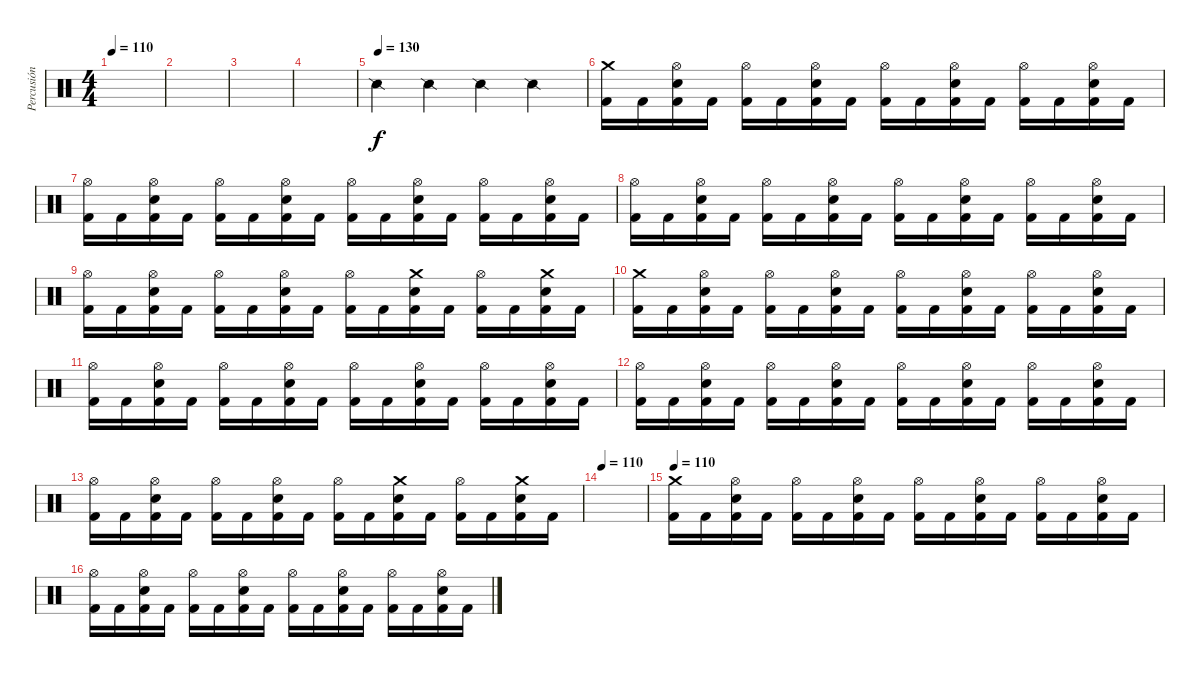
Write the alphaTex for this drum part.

\track ("Percusión" "Percusión") {instrument percussion}
\staff {score}
\articulation defaults
\ts (4 4)
\tempo 110
\tempo 70
\tempo 110
\clef neutral
\ks c
|
|
|
|
\tempo (130)
"Snare (side stick) 2".4 "Snare (side stick) 2".4 "Snare (side stick) 2".4 "Snare (side stick) 2".4 |
("Kick (hit) 2" "Crash medium (hit)").16 "Kick (hit) 2".16 ("Kick (hit) 2" "Snare (hit) 2" "Hi-Hat (open)").16 "Kick (hit) 2".16 ("Kick (hit) 2" "Hi-Hat (open)").16 "Kick (hit) 2".16 ("Kick (hit) 2" "Snare (hit) 2" "Hi-Hat (open)").16 "Kick (hit) 2".16 ("Kick (hit) 2" "Hi-Hat (open)").16 "Kick (hit) 2".16 ("Kick (hit) 2" "Snare (hit) 2" "Hi-Hat (open)").16 "Kick (hit) 2".16 ("Kick (hit) 2" "Hi-Hat (open)").16 "Kick (hit) 2".16 ("Kick (hit) 2" "Snare (hit) 2" "Hi-Hat (open)").16 "Kick (hit) 2".16 |
("Hi-Hat (open)" "Kick (hit) 2").16 "Kick (hit) 2".16 ("Kick (hit) 2" "Snare (hit) 2" "Hi-Hat (open)").16 "Kick (hit) 2".16 ("Kick (hit) 2" "Hi-Hat (open)").16 "Kick (hit) 2".16 ("Kick (hit) 2" "Snare (hit) 2" "Hi-Hat (open)").16 "Kick (hit) 2".16 ("Kick (hit) 2" "Hi-Hat (open)").16 "Kick (hit) 2".16 ("Kick (hit) 2" "Snare (hit) 2" "Hi-Hat (open)").16 "Kick (hit) 2".16 ("Kick (hit) 2" "Hi-Hat (open)").16 "Kick (hit) 2".16 ("Kick (hit) 2" "Snare (hit) 2" "Hi-Hat (open)").16 "Kick (hit) 2".16 |
("Hi-Hat (open)" "Kick (hit) 2").16 "Kick (hit) 2".16 ("Kick (hit) 2" "Snare (hit) 2" "Hi-Hat (open)").16 "Kick (hit) 2".16 ("Kick (hit) 2" "Hi-Hat (open)").16 "Kick (hit) 2".16 ("Kick (hit) 2" "Snare (hit) 2" "Hi-Hat (open)").16 "Kick (hit) 2".16 ("Kick (hit) 2" "Hi-Hat (open)").16 "Kick (hit) 2".16 ("Kick (hit) 2" "Snare (hit) 2" "Hi-Hat (open)").16 "Kick (hit) 2".16 ("Kick (hit) 2" "Hi-Hat (open)").16 "Kick (hit) 2".16 ("Kick (hit) 2" "Snare (hit) 2" "Hi-Hat (open)").16 "Kick (hit) 2".16 |
("Hi-Hat (open)" "Kick (hit) 2").16 "Kick (hit) 2".16 ("Kick (hit) 2" "Snare (hit) 2" "Hi-Hat (open)").16 "Kick (hit) 2".16 ("Kick (hit) 2" "Hi-Hat (open)").16 "Kick (hit) 2".16 ("Kick (hit) 2" "Snare (hit) 2" "Hi-Hat (open)").16 "Kick (hit) 2".16 ("Kick (hit) 2" "Hi-Hat (open)").16 "Kick (hit) 2".16 ("Crash medium (hit)" "Kick (hit) 2" "Snare (hit) 2").16 "Kick (hit) 2".16 ("Kick (hit) 2" "Hi-Hat (open)").16 "Kick (hit) 2".16 ("Crash medium (hit)" "Kick (hit) 2" "Snare (hit) 2").16 "Kick (hit) 2".16 |
("Kick (hit) 2" "Crash medium (hit)").16 "Kick (hit) 2".16 ("Kick (hit) 2" "Snare (hit) 2" "Hi-Hat (open)").16 "Kick (hit) 2".16 ("Kick (hit) 2" "Hi-Hat (open)").16 "Kick (hit) 2".16 ("Kick (hit) 2" "Snare (hit) 2" "Hi-Hat (open)").16 "Kick (hit) 2".16 ("Kick (hit) 2" "Hi-Hat (open)").16 "Kick (hit) 2".16 ("Kick (hit) 2" "Snare (hit) 2" "Hi-Hat (open)").16 "Kick (hit) 2".16 ("Kick (hit) 2" "Hi-Hat (open)").16 "Kick (hit) 2".16 ("Kick (hit) 2" "Snare (hit) 2" "Hi-Hat (open)").16 "Kick (hit) 2".16 |
("Hi-Hat (open)" "Kick (hit) 2").16 "Kick (hit) 2".16 ("Kick (hit) 2" "Snare (hit) 2" "Hi-Hat (open)").16 "Kick (hit) 2".16 ("Kick (hit) 2" "Hi-Hat (open)").16 "Kick (hit) 2".16 ("Kick (hit) 2" "Snare (hit) 2" "Hi-Hat (open)").16 "Kick (hit) 2".16 ("Kick (hit) 2" "Hi-Hat (open)").16 "Kick (hit) 2".16 ("Kick (hit) 2" "Snare (hit) 2" "Hi-Hat (open)").16 "Kick (hit) 2".16 ("Kick (hit) 2" "Hi-Hat (open)").16 "Kick (hit) 2".16 ("Kick (hit) 2" "Snare (hit) 2" "Hi-Hat (open)").16 "Kick (hit) 2".16 |
("Hi-Hat (open)" "Kick (hit) 2").16 "Kick (hit) 2".16 ("Kick (hit) 2" "Snare (hit) 2" "Hi-Hat (open)").16 "Kick (hit) 2".16 ("Kick (hit) 2" "Hi-Hat (open)").16 "Kick (hit) 2".16 ("Kick (hit) 2" "Snare (hit) 2" "Hi-Hat (open)").16 "Kick (hit) 2".16 ("Kick (hit) 2" "Hi-Hat (open)").16 "Kick (hit) 2".16 ("Kick (hit) 2" "Snare (hit) 2" "Hi-Hat (open)").16 "Kick (hit) 2".16 ("Kick (hit) 2" "Hi-Hat (open)").16 "Kick (hit) 2".16 ("Kick (hit) 2" "Snare (hit) 2" "Hi-Hat (open)").16 "Kick (hit) 2".16 |
("Hi-Hat (open)" "Kick (hit) 2").16 "Kick (hit) 2".16 ("Kick (hit) 2" "Snare (hit) 2" "Hi-Hat (open)").16 "Kick (hit) 2".16 ("Kick (hit) 2" "Hi-Hat (open)").16 "Kick (hit) 2".16 ("Kick (hit) 2" "Snare (hit) 2" "Hi-Hat (open)").16 "Kick (hit) 2".16 ("Kick (hit) 2" "Hi-Hat (open)").16 "Kick (hit) 2".16 ("Crash medium (hit)" "Kick (hit) 2" "Snare (hit) 2").16 "Kick (hit) 2".16 ("Kick (hit) 2" "Hi-Hat (open)").16 "Kick (hit) 2".16 ("Crash medium (hit)" "Kick (hit) 2" "Snare (hit) 2").16 "Kick (hit) 2".16 |
\tempo 110
|
\tempo 110
("Crash medium (hit)" "Kick (hit) 2").16 "Kick (hit) 2".16 ("Hi-Hat (open)" "Electric Snare (hit)" "Kick (hit) 2").16 "Kick (hit) 2".16 ("Hi-Hat (open)" "Kick (hit) 2").16 "Kick (hit) 2".16 ("Hi-Hat (open)" "Electric Snare (hit)" "Kick (hit) 2").16 "Kick (hit) 2".16 ("Hi-Hat (open)" "Kick (hit) 2").16 "Kick (hit) 2".16 ("Hi-Hat (open)" "Electric Snare (hit)" "Kick (hit) 2").16 "Kick (hit) 2".16 ("Hi-Hat (open)" "Kick (hit) 2").16 "Kick (hit) 2".16 ("Hi-Hat (open)" "Electric Snare (hit)" "Kick (hit) 2").16 "Kick (hit) 2".16 |
("Hi-Hat (open)" "Kick (hit) 2").16 "Kick (hit) 2".16 ("Hi-Hat (open)" "Electric Snare (hit)" "Kick (hit) 2").16 "Kick (hit) 2".16 ("Hi-Hat (open)" "Kick (hit) 2").16 "Kick (hit) 2".16 ("Hi-Hat (open)" "Electric Snare (hit)" "Kick (hit) 2").16 "Kick (hit) 2".16 ("Hi-Hat (open)" "Kick (hit) 2").16 "Kick (hit) 2".16 ("Hi-Hat (open)" "Electric Snare (hit)" "Kick (hit) 2").16 "Kick (hit) 2".16 ("Hi-Hat (open)" "Kick (hit) 2").16 "Kick (hit) 2".16 ("Hi-Hat (open)" "Electric Snare (hit)" "Kick (hit) 2").16 "Kick (hit) 2".16
